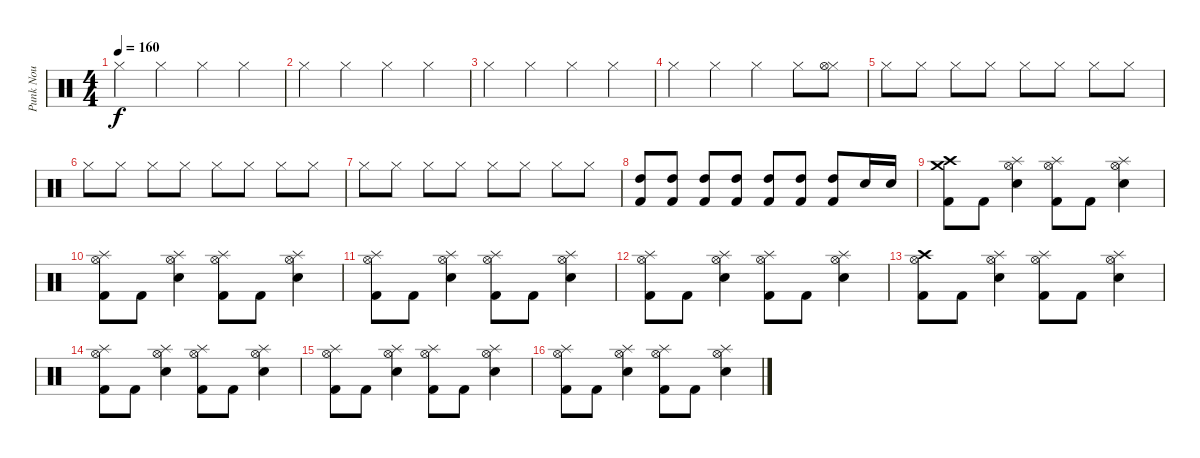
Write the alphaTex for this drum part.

\track ("Punk Nou" "Punk Nou") {instrument percussion}
\staff {score}
\articulation defaults
\ts (4 4)
\tempo 160
\clef neutral
\ks c "Hi-Hat (closed)".4{dy f} "Hi-Hat (closed)".4 "Hi-Hat (closed)".4 "Hi-Hat (closed)".4
|
"Hi-Hat (closed)".4 "Hi-Hat (closed)".4 "Hi-Hat (closed)".4 "Hi-Hat (closed)".4 |
"Hi-Hat (closed)".4 "Hi-Hat (closed)".4 "Hi-Hat (closed)".4 "Hi-Hat (closed)".4 |
"Hi-Hat (closed)".4 "Hi-Hat (closed)".4 "Hi-Hat (closed)".4 "Hi-Hat (closed)".8 ("Hi-Hat (closed)" "Hi-Hat (open)").8 |
"Hi-Hat (closed)".8 "Hi-Hat (closed)".8 "Hi-Hat (closed)".8 "Hi-Hat (closed)".8 "Hi-Hat (closed)".8 "Hi-Hat (closed)".8 "Hi-Hat (closed)".8 "Hi-Hat (closed)".8 |
"Hi-Hat (closed)".8 "Hi-Hat (closed)".8 "Hi-Hat (closed)".8 "Hi-Hat (closed)".8 "Hi-Hat (closed)".8 "Hi-Hat (closed)".8 "Hi-Hat (closed)".8 "Hi-Hat (closed)".8 |
"Hi-Hat (closed)".8 "Hi-Hat (closed)".8 "Hi-Hat (closed)".8 "Hi-Hat (closed)".8 "Hi-Hat (closed)".8 "Hi-Hat (closed)".8 "Hi-Hat (closed)".8 "Hi-Hat (closed)".8 |
("High Tom (hit)" "Kick (hit) 2").8 ("High Tom (hit)" "Kick (hit) 2").8 ("High Tom (hit)" "Kick (hit) 2").8 ("High Tom (hit)" "Kick (hit) 2").8 ("High Tom (hit)" "Kick (hit) 2").8 ("High Tom (hit)" "Kick (hit) 2").8 ("High Tom (hit)" "Kick (hit) 2").8 "Electric Snare (hit)".16 "Electric Snare (hit)".16 |
("Crash high (hit)" "Crash medium (hit)" "Kick (hit) 2").8 "Kick (hit) 2".8 ("Splash (hit)" "Hi-Hat (open)" "Electric Snare (hit)").4 ("Splash (hit)" "Hi-Hat (open)" "Kick (hit) 2").8 "Kick (hit) 2".8 ("Splash (hit)" "Hi-Hat (open)" "Electric Snare (hit)").4 |
("Splash (hit)" "Hi-Hat (open)" "Kick (hit) 2").8 "Kick (hit) 2".8 ("Splash (hit)" "Hi-Hat (open)" "Electric Snare (hit)").4 ("Splash (hit)" "Hi-Hat (open)" "Kick (hit) 2").8 "Kick (hit) 2".8 ("Splash (hit)" "Hi-Hat (open)" "Electric Snare (hit)").4 |
("Splash (hit)" "Hi-Hat (open)" "Kick (hit) 2").8 "Kick (hit) 2".8 ("Splash (hit)" "Hi-Hat (open)" "Electric Snare (hit)").4 ("Splash (hit)" "Hi-Hat (open)" "Kick (hit) 2").8 "Kick (hit) 2".8 ("Splash (hit)" "Hi-Hat (open)" "Electric Snare (hit)").4 |
("Splash (hit)" "Hi-Hat (open)" "Kick (hit) 2").8 "Kick (hit) 2".8 ("Splash (hit)" "Hi-Hat (open)" "Electric Snare (hit)").4 ("Splash (hit)" "Hi-Hat (open)" "Kick (hit) 2").8 "Kick (hit) 2".8 ("Splash (hit)" "Hi-Hat (open)" "Electric Snare (hit)").4 |
("Crash high (hit)" "Hi-Hat (open)" "Kick (hit) 2").8 "Kick (hit) 2".8 ("Splash (hit)" "Hi-Hat (open)" "Electric Snare (hit)").4 ("Splash (hit)" "Hi-Hat (open)" "Kick (hit) 2").8 "Kick (hit) 2".8 ("Splash (hit)" "Hi-Hat (open)" "Electric Snare (hit)").4 |
("Splash (hit)" "Hi-Hat (open)" "Kick (hit) 2").8 "Kick (hit) 2".8 ("Splash (hit)" "Hi-Hat (open)" "Electric Snare (hit)").4 ("Splash (hit)" "Hi-Hat (open)" "Kick (hit) 2").8 "Kick (hit) 2".8 ("Splash (hit)" "Hi-Hat (open)" "Electric Snare (hit)").4 |
("Splash (hit)" "Hi-Hat (open)" "Kick (hit) 2").8 "Kick (hit) 2".8 ("Splash (hit)" "Hi-Hat (open)" "Electric Snare (hit)").4 ("Splash (hit)" "Hi-Hat (open)" "Kick (hit) 2").8 "Kick (hit) 2".8 ("Splash (hit)" "Hi-Hat (open)" "Electric Snare (hit)").4 |
("Splash (hit)" "Hi-Hat (open)" "Kick (hit) 2").8 "Kick (hit) 2".8 ("Splash (hit)" "Hi-Hat (open)" "Electric Snare (hit)").4 ("Splash (hit)" "Hi-Hat (open)" "Kick (hit) 2").8 "Kick (hit) 2".8 ("Splash (hit)" "Hi-Hat (open)" "Electric Snare (hit)").4
